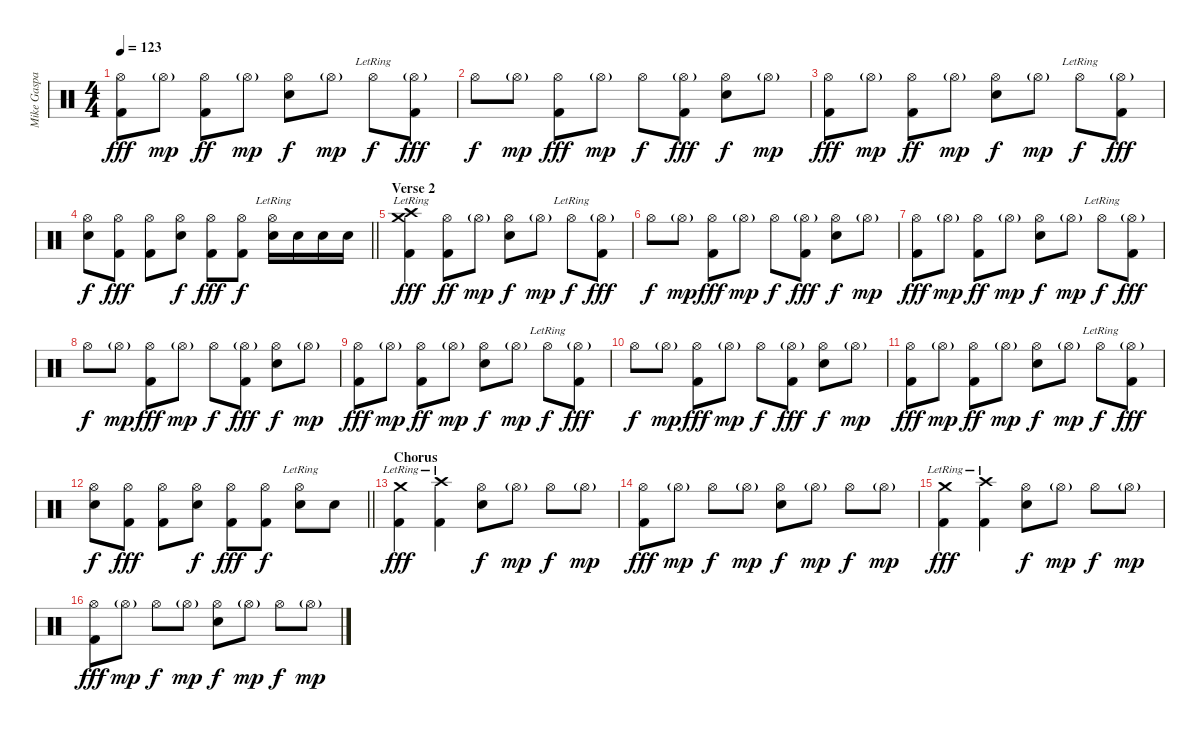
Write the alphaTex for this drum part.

\track ("Mike Gaspar (Drums)" "Mike Gaspa") {instrument percussion}
\staff {score}
\articulation defaults
\ts (4 4)
\tempo 123
\clef neutral
\ks c
("Hi-Hat (open)" "Kick (hit) 2").8{dy fff} "Hi-Hat (open)"{g}.8{dy mp} ("Hi-Hat (open)" "Kick (hit) 2").8{dy ff} "Hi-Hat (open)"{g}.8{dy mp} ("Hi-Hat (open)" "Snare (hit) 2").8{dy f} "Hi-Hat (open)"{g}.8{dy mp} "Hi-Hat (open)"{lr}.8{dy f} ("Hi-Hat (open)"{g} "Kick (hit) 2").8{dy fff} |
"Hi-Hat (open)".8{dy f} "Hi-Hat (open)"{g}.8{dy mp} ("Hi-Hat (open)" "Kick (hit) 2").8{dy fff} "Hi-Hat (open)"{g}.8{dy mp} "Hi-Hat (open)".8{dy f} ("Hi-Hat (open)"{g} "Kick (hit) 2").8{dy fff} ("Hi-Hat (open)" "Snare (hit) 2").8{dy f} "Hi-Hat (open)"{g}.8{dy mp} |
("Hi-Hat (open)" "Kick (hit) 2").8{dy fff} "Hi-Hat (open)"{g}.8{dy mp} ("Hi-Hat (open)" "Kick (hit) 2").8{dy ff} "Hi-Hat (open)"{g}.8{dy mp} ("Hi-Hat (open)" "Snare (hit) 2").8{dy f} "Hi-Hat (open)"{g}.8{dy mp} "Hi-Hat (open)"{lr}.8{dy f} ("Hi-Hat (open)"{g} "Kick (hit) 2").8{dy fff} |
\barLineRight lightlight
("Hi-Hat (open)" "Snare (hit) 2").8{dy f} ("Hi-Hat (open)" "Kick (hit) 2").8{dy fff} ("Hi-Hat (open)" "Kick (hit) 2").8 ("Hi-Hat (open)" "Snare (hit) 2").8{dy f} ("Hi-Hat (open)" "Kick (hit) 2").8{dy fff} ("Hi-Hat (open)" "Kick (hit) 2").8{dy f} ("Hi-Hat (open)"{lr} "Snare (hit) 2").16 "Snare (hit) 2".16 "Snare (hit) 2".16 "Snare (hit) 2".16 |
\section ("" "Verse 2")
("Crash medium (hit)"{lr} "Crash high (hit)"{lr} "Kick (hit) 2").4{dy fff} ("Hi-Hat (open)" "Kick (hit) 2").8{dy ff} "Hi-Hat (open)"{g}.8{dy mp} ("Hi-Hat (open)" "Snare (hit) 2").8{dy f} "Hi-Hat (open)"{g}.8{dy mp} "Hi-Hat (open)"{lr}.8{dy f} ("Hi-Hat (open)"{g} "Kick (hit) 2").8{dy fff} |
"Hi-Hat (open)".8{dy f} "Hi-Hat (open)"{g}.8{dy mp} ("Hi-Hat (open)" "Kick (hit) 2").8{dy fff} "Hi-Hat (open)"{g}.8{dy mp} "Hi-Hat (open)".8{dy f} ("Hi-Hat (open)"{g} "Kick (hit) 2").8{dy fff} ("Hi-Hat (open)" "Snare (hit) 2").8{dy f} "Hi-Hat (open)"{g}.8{dy mp} |
("Hi-Hat (open)" "Kick (hit) 2").8{dy fff} "Hi-Hat (open)"{g}.8{dy mp} ("Hi-Hat (open)" "Kick (hit) 2").8{dy ff} "Hi-Hat (open)"{g}.8{dy mp} ("Hi-Hat (open)" "Snare (hit) 2").8{dy f} "Hi-Hat (open)"{g}.8{dy mp} "Hi-Hat (open)"{lr}.8{dy f} ("Hi-Hat (open)"{g} "Kick (hit) 2").8{dy fff} |
"Hi-Hat (open)".8{dy f} "Hi-Hat (open)"{g}.8{dy mp} ("Hi-Hat (open)" "Kick (hit) 2").8{dy fff} "Hi-Hat (open)"{g}.8{dy mp} "Hi-Hat (open)".8{dy f} ("Hi-Hat (open)"{g} "Kick (hit) 2").8{dy fff} ("Hi-Hat (open)" "Snare (hit) 2").8{dy f} "Hi-Hat (open)"{g}.8{dy mp} |
("Hi-Hat (open)" "Kick (hit) 2").8{dy fff} "Hi-Hat (open)"{g}.8{dy mp} ("Hi-Hat (open)" "Kick (hit) 2").8{dy ff} "Hi-Hat (open)"{g}.8{dy mp} ("Hi-Hat (open)" "Snare (hit) 2").8{dy f} "Hi-Hat (open)"{g}.8{dy mp} "Hi-Hat (open)"{lr}.8{dy f} ("Hi-Hat (open)"{g} "Kick (hit) 2").8{dy fff} |
"Hi-Hat (open)".8{dy f} "Hi-Hat (open)"{g}.8{dy mp} ("Hi-Hat (open)" "Kick (hit) 2").8{dy fff} "Hi-Hat (open)"{g}.8{dy mp} "Hi-Hat (open)".8{dy f} ("Hi-Hat (open)"{g} "Kick (hit) 2").8{dy fff} ("Hi-Hat (open)" "Snare (hit) 2").8{dy f} "Hi-Hat (open)"{g}.8{dy mp} |
("Hi-Hat (open)" "Kick (hit) 2").8{dy fff} "Hi-Hat (open)"{g}.8{dy mp} ("Hi-Hat (open)" "Kick (hit) 2").8{dy ff} "Hi-Hat (open)"{g}.8{dy mp} ("Hi-Hat (open)" "Snare (hit) 2").8{dy f} "Hi-Hat (open)"{g}.8{dy mp} "Hi-Hat (open)"{lr}.8{dy f} ("Hi-Hat (open)"{g} "Kick (hit) 2").8{dy fff} |
\barLineRight lightlight
("Hi-Hat (open)" "Snare (hit) 2").8{dy f} ("Hi-Hat (open)" "Kick (hit) 2").8{dy fff} ("Hi-Hat (open)" "Kick (hit) 2").8 ("Hi-Hat (open)" "Snare (hit) 2").8{dy f} ("Hi-Hat (open)" "Kick (hit) 2").8{dy fff} ("Hi-Hat (open)" "Kick (hit) 2").8{dy f} ("Hi-Hat (open)"{lr} "Snare (hit) 2").8 "Snare (hit) 2".8 |
\section ("" "Chorus")
("Crash medium (hit)"{lr} "Kick (hit) 2").4{dy fff} ("Crash high (hit)"{lr} "Kick (hit) 2").4 ("Hi-Hat (open)" "Snare (hit) 2").8{dy f} "Hi-Hat (open)"{g}.8{dy mp} "Hi-Hat (open)".8{dy f} "Hi-Hat (open)"{g}.8{dy mp} |
("Hi-Hat (open)" "Kick (hit) 2").8{dy fff} "Hi-Hat (open)"{g}.8{dy mp} "Hi-Hat (open)".8{dy f} "Hi-Hat (open)"{g}.8{dy mp} ("Hi-Hat (open)" "Snare (hit) 2").8{dy f} "Hi-Hat (open)"{g}.8{dy mp} "Hi-Hat (open)".8{dy f} "Hi-Hat (open)"{g}.8{dy mp} |
("Crash medium (hit)"{lr} "Kick (hit) 2").4{dy fff} ("Crash high (hit)"{lr} "Kick (hit) 2").4 ("Hi-Hat (open)" "Snare (hit) 2").8{dy f} "Hi-Hat (open)"{g}.8{dy mp} "Hi-Hat (open)".8{dy f} "Hi-Hat (open)"{g}.8{dy mp} |
("Hi-Hat (open)" "Kick (hit) 2").8{dy fff} "Hi-Hat (open)"{g}.8{dy mp} "Hi-Hat (open)".8{dy f} "Hi-Hat (open)"{g}.8{dy mp} ("Hi-Hat (open)" "Snare (hit) 2").8{dy f} "Hi-Hat (open)"{g}.8{dy mp} "Hi-Hat (open)".8{dy f} "Hi-Hat (open)"{g}.8{dy mp}
